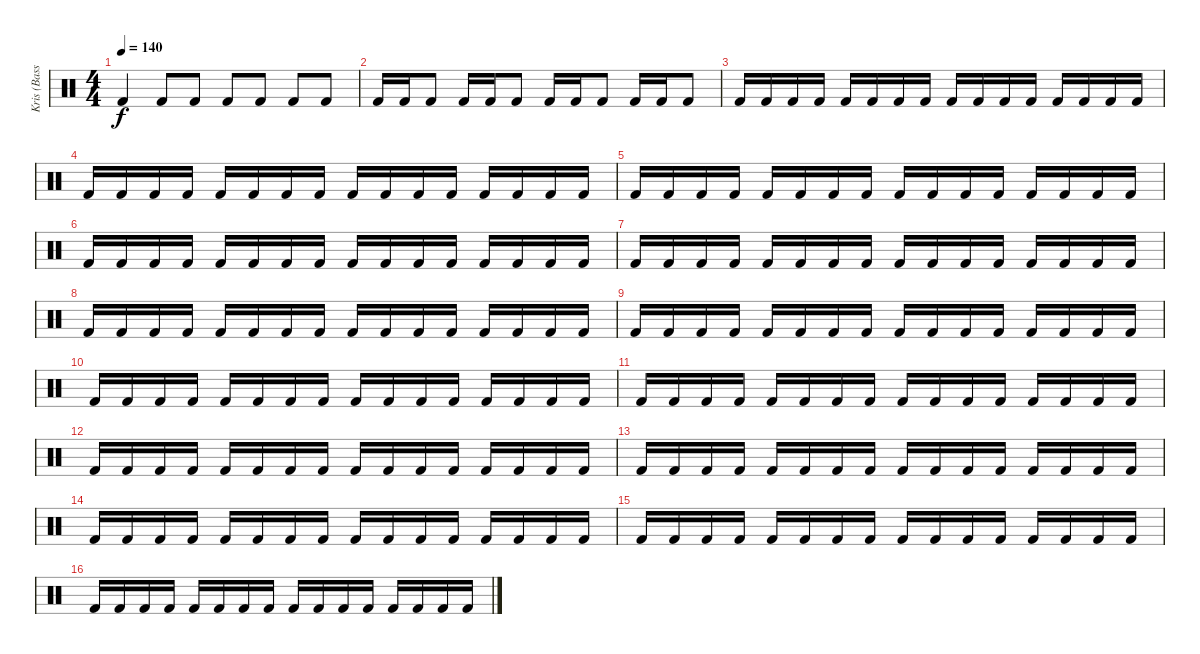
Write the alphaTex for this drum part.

\track ("Kris (Bass Drums)" "Kris (Bass") {instrument percussion}
\staff {score}
\articulation defaults
\ts (4 4)
\tempo 140
\clef neutral
\ks c "Kick (hit) 2".4{dy f} "Kick (hit) 2".8 "Kick (hit) 2".8 "Kick (hit) 2".8 "Kick (hit) 2".8 "Kick (hit) 2".8 "Kick (hit) 2".8
|
"Kick (hit) 2".16 "Kick (hit) 2".16 "Kick (hit) 2".8 "Kick (hit) 2".16 "Kick (hit) 2".16 "Kick (hit) 2".8 "Kick (hit) 2".16 "Kick (hit) 2".16 "Kick (hit) 2".8 "Kick (hit) 2".16 "Kick (hit) 2".16 "Kick (hit) 2".8 |
"Kick (hit) 2".16 "Kick (hit) 2".16 "Kick (hit) 2".16 "Kick (hit) 2".16 "Kick (hit) 2".16 "Kick (hit) 2".16 "Kick (hit) 2".16 "Kick (hit) 2".16 "Kick (hit) 2".16 "Kick (hit) 2".16 "Kick (hit) 2".16 "Kick (hit) 2".16 "Kick (hit) 2".16 "Kick (hit) 2".16 "Kick (hit) 2".16 "Kick (hit) 2".16 |
"Kick (hit) 2".16 "Kick (hit) 2".16 "Kick (hit) 2".16 "Kick (hit) 2".16 "Kick (hit) 2".16 "Kick (hit) 2".16 "Kick (hit) 2".16 "Kick (hit) 2".16 "Kick (hit) 2".16 "Kick (hit) 2".16 "Kick (hit) 2".16 "Kick (hit) 2".16 "Kick (hit) 2".16 "Kick (hit) 2".16 "Kick (hit) 2".16 "Kick (hit) 2".16 |
"Kick (hit) 2".16 "Kick (hit) 2".16 "Kick (hit) 2".16 "Kick (hit) 2".16 "Kick (hit) 2".16 "Kick (hit) 2".16 "Kick (hit) 2".16 "Kick (hit) 2".16 "Kick (hit) 2".16 "Kick (hit) 2".16 "Kick (hit) 2".16 "Kick (hit) 2".16 "Kick (hit) 2".16 "Kick (hit) 2".16 "Kick (hit) 2".16 "Kick (hit) 2".16 |
"Kick (hit) 2".16 "Kick (hit) 2".16 "Kick (hit) 2".16 "Kick (hit) 2".16 "Kick (hit) 2".16 "Kick (hit) 2".16 "Kick (hit) 2".16 "Kick (hit) 2".16 "Kick (hit) 2".16 "Kick (hit) 2".16 "Kick (hit) 2".16 "Kick (hit) 2".16 "Kick (hit) 2".16 "Kick (hit) 2".16 "Kick (hit) 2".16 "Kick (hit) 2".16 |
"Kick (hit) 2".16 "Kick (hit) 2".16 "Kick (hit) 2".16 "Kick (hit) 2".16 "Kick (hit) 2".16 "Kick (hit) 2".16 "Kick (hit) 2".16 "Kick (hit) 2".16 "Kick (hit) 2".16 "Kick (hit) 2".16 "Kick (hit) 2".16 "Kick (hit) 2".16 "Kick (hit) 2".16 "Kick (hit) 2".16 "Kick (hit) 2".16 "Kick (hit) 2".16 |
"Kick (hit) 2".16 "Kick (hit) 2".16 "Kick (hit) 2".16 "Kick (hit) 2".16 "Kick (hit) 2".16 "Kick (hit) 2".16 "Kick (hit) 2".16 "Kick (hit) 2".16 "Kick (hit) 2".16 "Kick (hit) 2".16 "Kick (hit) 2".16 "Kick (hit) 2".16 "Kick (hit) 2".16 "Kick (hit) 2".16 "Kick (hit) 2".16 "Kick (hit) 2".16 |
"Kick (hit) 2".16 "Kick (hit) 2".16 "Kick (hit) 2".16 "Kick (hit) 2".16 "Kick (hit) 2".16 "Kick (hit) 2".16 "Kick (hit) 2".16 "Kick (hit) 2".16 "Kick (hit) 2".16 "Kick (hit) 2".16 "Kick (hit) 2".16 "Kick (hit) 2".16 "Kick (hit) 2".16 "Kick (hit) 2".16 "Kick (hit) 2".16 "Kick (hit) 2".16 |
"Kick (hit) 2".16 "Kick (hit) 2".16 "Kick (hit) 2".16 "Kick (hit) 2".16 "Kick (hit) 2".16 "Kick (hit) 2".16 "Kick (hit) 2".16 "Kick (hit) 2".16 "Kick (hit) 2".16 "Kick (hit) 2".16 "Kick (hit) 2".16 "Kick (hit) 2".16 "Kick (hit) 2".16 "Kick (hit) 2".16 "Kick (hit) 2".16 "Kick (hit) 2".16 |
"Kick (hit) 2".16 "Kick (hit) 2".16 "Kick (hit) 2".16 "Kick (hit) 2".16 "Kick (hit) 2".16 "Kick (hit) 2".16 "Kick (hit) 2".16 "Kick (hit) 2".16 "Kick (hit) 2".16 "Kick (hit) 2".16 "Kick (hit) 2".16 "Kick (hit) 2".16 "Kick (hit) 2".16 "Kick (hit) 2".16 "Kick (hit) 2".16 "Kick (hit) 2".16 |
"Kick (hit) 2".16 "Kick (hit) 2".16 "Kick (hit) 2".16 "Kick (hit) 2".16 "Kick (hit) 2".16 "Kick (hit) 2".16 "Kick (hit) 2".16 "Kick (hit) 2".16 "Kick (hit) 2".16 "Kick (hit) 2".16 "Kick (hit) 2".16 "Kick (hit) 2".16 "Kick (hit) 2".16 "Kick (hit) 2".16 "Kick (hit) 2".16 "Kick (hit) 2".16 |
"Kick (hit) 2".16 "Kick (hit) 2".16 "Kick (hit) 2".16 "Kick (hit) 2".16 "Kick (hit) 2".16 "Kick (hit) 2".16 "Kick (hit) 2".16 "Kick (hit) 2".16 "Kick (hit) 2".16 "Kick (hit) 2".16 "Kick (hit) 2".16 "Kick (hit) 2".16 "Kick (hit) 2".16 "Kick (hit) 2".16 "Kick (hit) 2".16 "Kick (hit) 2".16 |
"Kick (hit) 2".16 "Kick (hit) 2".16 "Kick (hit) 2".16 "Kick (hit) 2".16 "Kick (hit) 2".16 "Kick (hit) 2".16 "Kick (hit) 2".16 "Kick (hit) 2".16 "Kick (hit) 2".16 "Kick (hit) 2".16 "Kick (hit) 2".16 "Kick (hit) 2".16 "Kick (hit) 2".16 "Kick (hit) 2".16 "Kick (hit) 2".16 "Kick (hit) 2".16 |
"Kick (hit) 2".16 "Kick (hit) 2".16 "Kick (hit) 2".16 "Kick (hit) 2".16 "Kick (hit) 2".16 "Kick (hit) 2".16 "Kick (hit) 2".16 "Kick (hit) 2".16 "Kick (hit) 2".16 "Kick (hit) 2".16 "Kick (hit) 2".16 "Kick (hit) 2".16 "Kick (hit) 2".16 "Kick (hit) 2".16 "Kick (hit) 2".16 "Kick (hit) 2".16 |
"Kick (hit) 2".16 "Kick (hit) 2".16 "Kick (hit) 2".16 "Kick (hit) 2".16 "Kick (hit) 2".16 "Kick (hit) 2".16 "Kick (hit) 2".16 "Kick (hit) 2".16 "Kick (hit) 2".16 "Kick (hit) 2".16 "Kick (hit) 2".16 "Kick (hit) 2".16 "Kick (hit) 2".16 "Kick (hit) 2".16 "Kick (hit) 2".16 "Kick (hit) 2".16
